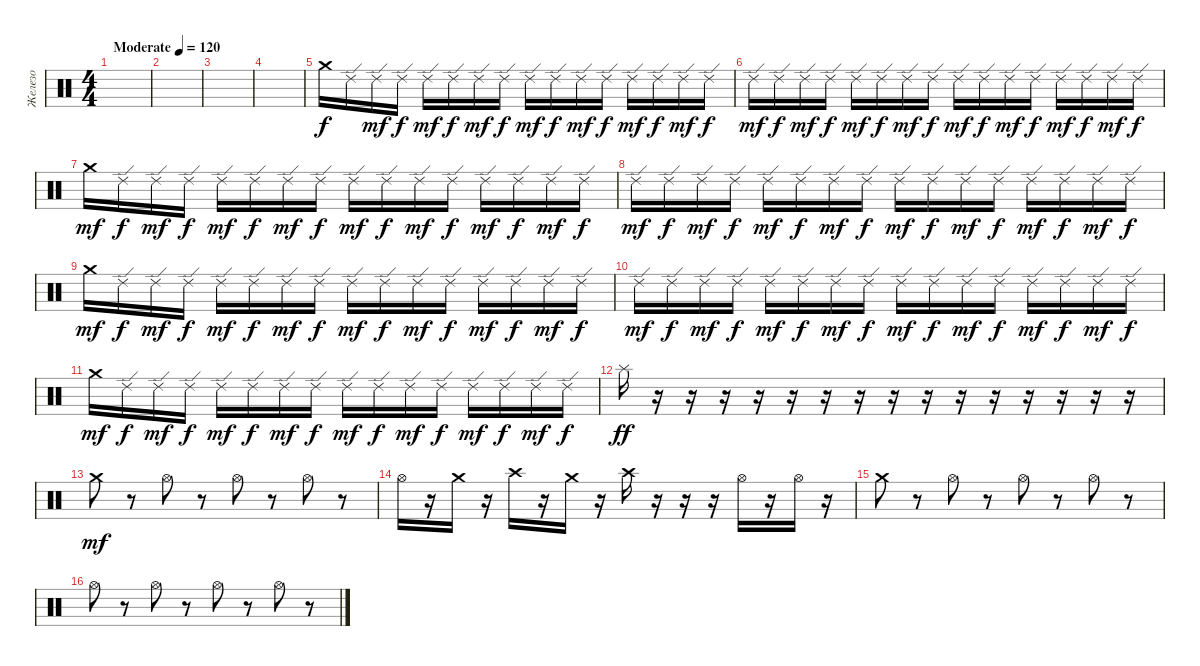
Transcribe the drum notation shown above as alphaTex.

\track ("Железо" "Железо") {instrument percussion}
\staff {score}
\articulation defaults
\ts (4 4)
\tempo (120 "Moderate")
\clef neutral
\ks c
|
|
|
|
"Crash medium (hit)".16 "Ride (edge) 2".16{dy f} "Ride (edge) 2".16{dy mf} "Ride (edge) 2".16{dy f} "Ride (edge) 2".16{dy mf} "Ride (edge) 2".16{dy f} "Ride (edge) 2".16{dy mf} "Ride (edge) 2".16{dy f} "Ride (edge) 2".16{dy mf} "Ride (edge) 2".16{dy f} "Ride (edge) 2".16{dy mf} "Ride (edge) 2".16{dy f} "Ride (edge) 2".16{dy mf} "Ride (edge) 2".16{dy f} "Ride (edge) 2".16{dy mf} "Ride (edge) 2".16{dy f} |
"Ride (edge) 2".16{dy mf} "Ride (edge) 2".16{dy f} "Ride (edge) 2".16{dy mf} "Ride (edge) 2".16{dy f} "Ride (edge) 2".16{dy mf} "Ride (edge) 2".16{dy f} "Ride (edge) 2".16{dy mf} "Ride (edge) 2".16{dy f} "Ride (edge) 2".16{dy mf} "Ride (edge) 2".16{dy f} "Ride (edge) 2".16{dy mf} "Ride (edge) 2".16{dy f} "Ride (edge) 2".16{dy mf} "Ride (edge) 2".16{dy f} "Ride (edge) 2".16{dy mf} "Ride (edge) 2".16{dy f} |
"Crash medium (hit)".16{dy mf} "Ride (edge) 2".16{dy f} "Ride (edge) 2".16{dy mf} "Ride (edge) 2".16{dy f} "Ride (edge) 2".16{dy mf} "Ride (edge) 2".16{dy f} "Ride (edge) 2".16{dy mf} "Ride (edge) 2".16{dy f} "Ride (edge) 2".16{dy mf} "Ride (edge) 2".16{dy f} "Ride (edge) 2".16{dy mf} "Ride (edge) 2".16{dy f} "Ride (edge) 2".16{dy mf} "Ride (edge) 2".16{dy f} "Ride (edge) 2".16{dy mf} "Ride (edge) 2".16{dy f} |
"Ride (edge) 2".16{dy mf} "Ride (edge) 2".16{dy f} "Ride (edge) 2".16{dy mf} "Ride (edge) 2".16{dy f} "Ride (edge) 2".16{dy mf} "Ride (edge) 2".16{dy f} "Ride (edge) 2".16{dy mf} "Ride (edge) 2".16{dy f} "Ride (edge) 2".16{dy mf} "Ride (edge) 2".16{dy f} "Ride (edge) 2".16{dy mf} "Ride (edge) 2".16{dy f} "Ride (edge) 2".16{dy mf} "Ride (edge) 2".16{dy f} "Ride (edge) 2".16{dy mf} "Ride (edge) 2".16{dy f} |
"Crash medium (hit)".16{dy mf} "Ride (edge) 2".16{dy f} "Ride (edge) 2".16{dy mf} "Ride (edge) 2".16{dy f} "Ride (edge) 2".16{dy mf} "Ride (edge) 2".16{dy f} "Ride (edge) 2".16{dy mf} "Ride (edge) 2".16{dy f} "Ride (edge) 2".16{dy mf} "Ride (edge) 2".16{dy f} "Ride (edge) 2".16{dy mf} "Ride (edge) 2".16{dy f} "Ride (edge) 2".16{dy mf} "Ride (edge) 2".16{dy f} "Ride (edge) 2".16{dy mf} "Ride (edge) 2".16{dy f} |
"Ride (edge) 2".16{dy mf} "Ride (edge) 2".16{dy f} "Ride (edge) 2".16{dy mf} "Ride (edge) 2".16{dy f} "Ride (edge) 2".16{dy mf} "Ride (edge) 2".16{dy f} "Ride (edge) 2".16{dy mf} "Ride (edge) 2".16{dy f} "Ride (edge) 2".16{dy mf} "Ride (edge) 2".16{dy f} "Ride (edge) 2".16{dy mf} "Ride (edge) 2".16{dy f} "Ride (edge) 2".16{dy mf} "Ride (edge) 2".16{dy f} "Ride (edge) 2".16{dy mf} "Ride (edge) 2".16{dy f} |
"Crash medium (hit)".16{dy mf} "Ride (edge) 2".16{dy f} "Ride (edge) 2".16{dy mf} "Ride (edge) 2".16{dy f} "Ride (edge) 2".16{dy mf} "Ride (edge) 2".16{dy f} "Ride (edge) 2".16{dy mf} "Ride (edge) 2".16{dy f} "Ride (edge) 2".16{dy mf} "Ride (edge) 2".16{dy f} "Ride (edge) 2".16{dy mf} "Ride (edge) 2".16{dy f} "Ride (edge) 2".16{dy mf} "Ride (edge) 2".16{dy f} "Ride (edge) 2".16{dy mf} "Ride (edge) 2".16{dy f} |
"Splash (hit)".16{dy ff} r.16 r.16 r.16 r.16 r.16 r.16 r.16 r.16 r.16 r.16 r.16 r.16 r.16 r.16 r.16 |
"Crash medium (hit)".8{dy mf} r.8 "Hi-Hat (open)".8 r.8 "Hi-Hat (open)".8 r.8 "Hi-Hat (open)".8 r.8 |
"Hi-Hat (open)".16 r.16 "Crash medium (hit)".16 r.16 "Crash high (hit)".16 r.16 "Crash medium (hit)".16 r.16 "Crash high (hit)".16 r.16 r.16 r.16 "Hi-Hat (open)".16 r.16 "Hi-Hat (open)".16 r.16 |
"Crash medium (hit)".8 r.8 "Hi-Hat (open)".8 r.8 "Hi-Hat (open)".8 r.8 "Hi-Hat (open)".8 r.8 |
"Hi-Hat (open)".8 r.8 "Hi-Hat (open)".8 r.8 "Hi-Hat (open)".8 r.8 "Hi-Hat (open)".8 r.8
